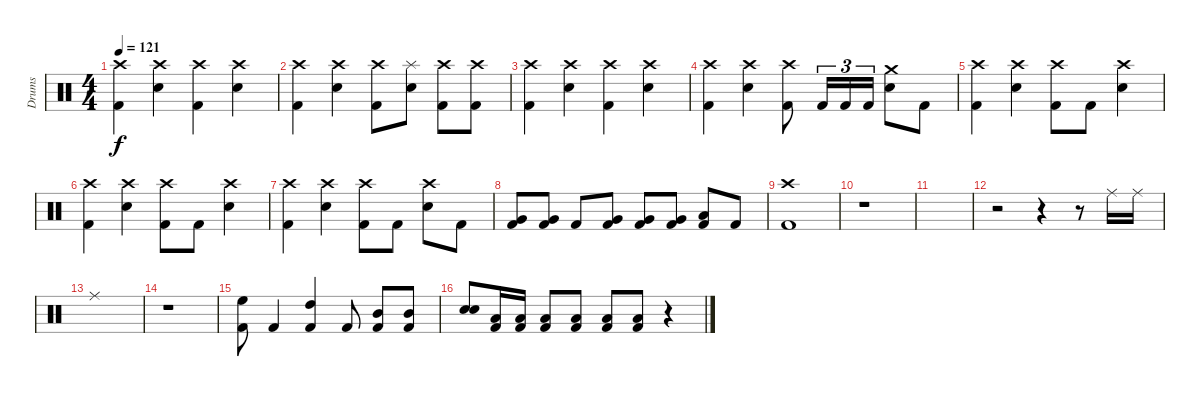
\track ("Drums" "Drums") {instrument percussion}
\staff {score}
\articulation defaults
\ts (4 4)
\tempo 121
\clef neutral
\ks c
("Crash high (hit)" "Kick (hit) 2").4{dy f} ("Crash high (hit)" "Electric Snare (hit)").4 ("Crash high (hit)" "Kick (hit) 2").4 ("Crash high (hit)" "Electric Snare (hit)").4 |
("Crash high (hit)" "Kick (hit) 2").4 ("Crash high (hit)" "Electric Snare (hit)").4 ("Crash high (hit)" "Kick (hit) 2").8 ("Splash (hit)" "Electric Snare (hit)").8 ("Crash high (hit)" "Kick (hit) 2").8 ("Crash high (hit)" "Kick (hit) 2").8 |
("Crash high (hit)" "Kick (hit) 2").4 ("Crash high (hit)" "Electric Snare (hit)").4 ("Crash high (hit)" "Kick (hit) 2").4 ("Crash high (hit)" "Electric Snare (hit)").4 |
("Crash high (hit)" "Kick (hit) 2").4 ("Crash high (hit)" "Electric Snare (hit)").4 ("Crash high (hit)" "Kick (hit) 2").8 "Kick (hit) 2".16{tu (3 2)} "Kick (hit) 2".16{tu (3 2)} "Kick (hit) 2".16{tu (3 2)} ("Crash medium (hit)" "Electric Snare (hit)").8 "Kick (hit) 2".8 |
("Crash high (hit)" "Kick (hit) 2").4 ("Crash high (hit)" "Electric Snare (hit)").4 ("Crash high (hit)" "Kick (hit) 2").8 "Kick (hit) 2".8 ("Crash high (hit)" "Electric Snare (hit)").4 |
("Crash high (hit)" "Kick (hit) 2").4 ("Crash high (hit)" "Electric Snare (hit)").4 ("Crash high (hit)" "Kick (hit) 2").8 "Kick (hit) 2".8 ("Crash high (hit)" "Electric Snare (hit)").4 |
("Crash high (hit)" "Kick (hit) 2").4 ("Crash high (hit)" "Electric Snare (hit)").4 ("Crash high (hit)" "Kick (hit) 2").8 "Kick (hit) 2".8 ("Crash high (hit)" "Electric Snare (hit)").8 "Kick (hit) 2".8 |
("Very Low Tom (hit)" "Kick (hit) 2").8 ("Very Low Tom (hit)" "Kick (hit) 2").8 "Kick (hit) 2".8 ("Very Low Tom (hit)" "Kick (hit) 2").8 ("Very Low Tom (hit)" "Kick (hit) 2").8 ("Very Low Tom (hit)" "Kick (hit) 2").8 ("Low Floor Tom (hit)" "Kick (hit) 2").8 "Kick (hit) 2".8 |
("Crash high (hit)" "Kick (hit) 2").1 |
r.1 |
|
r.2 r.4 r.8 "Ride (middle)".16 "Ride (middle)".16 |
"Ride (middle)".1 |
r.1 |
("High Floor Tom (hit)" "Kick (hit) 2").8 "Kick (hit) 2".4 ("High Tom (hit)" "Kick (hit) 2").4 "Kick (hit) 2".8 ("Mid Tom (hit)" "Kick (hit) 2").8 ("Mid Tom (hit)" "Kick (hit) 2").8 |
("Snare (hit)"{x} "Snare (hit)"{x}).8 ("Low Floor Tom (hit)" "Kick (hit) 2").16 ("Low Floor Tom (hit)" "Kick (hit) 2").16 ("Low Floor Tom (hit)" "Kick (hit) 2").8 ("Low Floor Tom (hit)" "Kick (hit) 2").8 ("Low Floor Tom (hit)" "Kick (hit) 2").8 ("Low Floor Tom (hit)" "Kick (hit) 2").8 r.4
